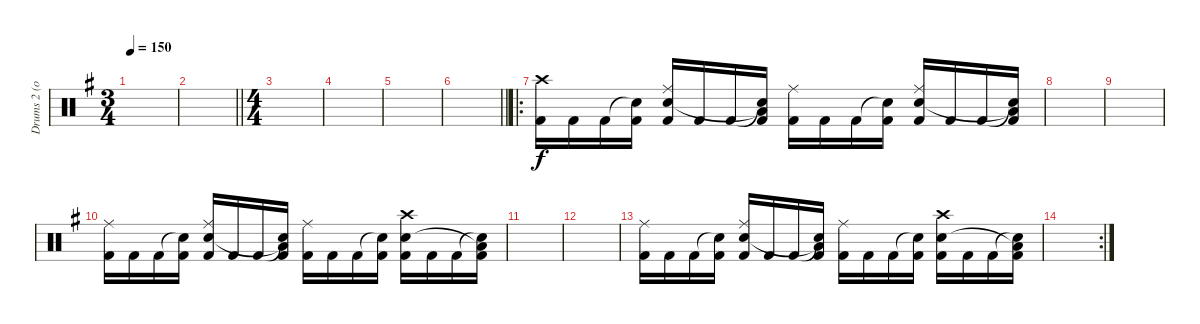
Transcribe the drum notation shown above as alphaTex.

\track ("Drums 2 (optional)" "Drums 2 (o") {instrument percussion}
\staff {score}
\articulation defaults
\ts (3 4)
\tempo 150
\clef neutral
\ks g
|
\barLineRight lightlight
|
\ts (4 4)
|
|
|
\barLineRight lightlight
|
\ro
("Crash high (hit)" "Kick (hit) 2").16 "Kick (hit) 2".16 "Kick (hit) 2".16 ("Snare (hit)"{t} "Kick (hit) 2").16 ("Ride (middle)" "Electric Snare (hit)" "Kick (hit) 2").16 "Kick (hit) 2".16 "Kick (hit) 2".16 ("Snare (hit)"{t} "Low Floor Tom (hit)"{t} "Kick (hit) 2").16 ("Ride (middle)" "Kick (hit) 2").16 "Kick (hit) 2".16 "Kick (hit) 2".16 ("Snare (hit)"{t} "Kick (hit) 2").16 ("Ride (middle)" "Electric Snare (hit)" "Kick (hit) 2").16 "Kick (hit) 2".16 "Kick (hit) 2".16 ("Snare (hit)"{t} "Low Floor Tom (hit)"{t} "Kick (hit) 2").16 |
|
|
("Ride (middle)" "Kick (hit) 2").16 "Kick (hit) 2".16 "Kick (hit) 2".16 ("Snare (hit)"{t} "Kick (hit) 2").16 ("Ride (middle)" "Electric Snare (hit)" "Kick (hit) 2").16 "Kick (hit) 2".16 "Kick (hit) 2".16 ("Snare (hit)"{t} "Low Floor Tom (hit)"{t} "Kick (hit) 2").16 ("Ride (middle)" "Kick (hit) 2").16 "Kick (hit) 2".16 "Kick (hit) 2".16 ("Snare (hit)"{t} "Kick (hit) 2").16 ("Crash high (hit)" "Electric Snare (hit)" "Kick (hit) 2").16 "Kick (hit) 2".16 "Kick (hit) 2".16 ("Snare (hit)"{t} "Low Floor Tom (hit)"{t} "Kick (hit) 2").16 |
|
|
("Ride (middle)" "Kick (hit) 2").16 "Kick (hit) 2".16 "Kick (hit) 2".16 ("Snare (hit)"{t} "Kick (hit) 2").16 ("Ride (middle)" "Electric Snare (hit)" "Kick (hit) 2").16 "Kick (hit) 2".16 "Kick (hit) 2".16 ("Snare (hit)"{t} "Low Floor Tom (hit)"{t} "Kick (hit) 2").16 ("Ride (middle)" "Kick (hit) 2").16 "Kick (hit) 2".16 "Kick (hit) 2".16 ("Snare (hit)"{t} "Kick (hit) 2").16 ("Crash high (hit)" "Electric Snare (hit)" "Kick (hit) 2").16 "Kick (hit) 2".16 "Kick (hit) 2".16 ("Snare (hit)"{t} "Low Floor Tom (hit)"{t} "Kick (hit) 2").16 |
\rc 2
